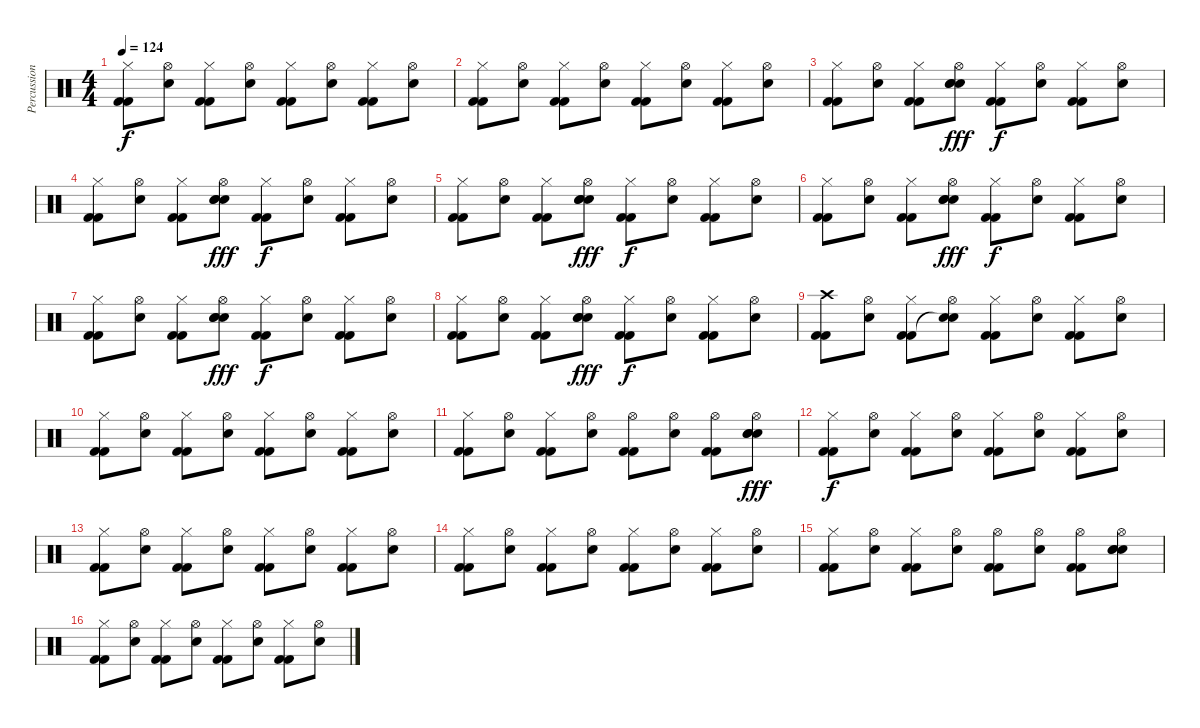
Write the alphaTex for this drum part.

\track ("Percussions" "Percussion") {instrument percussion}
\staff {score}
\articulation defaults
\ts (4 4)
\tempo 124
\clef neutral
\ks c
("Kick (hit) 2" "Kick (hit) 2" "Hi-Hat (closed)").8{dy f} ("Hand Clap (hit)" "Hi-Hat (open)").8 ("Kick (hit) 2" "Kick (hit) 2" "Hi-Hat (closed)").8 ("Hand Clap (hit)" "Hi-Hat (open)").8 ("Kick (hit) 2" "Kick (hit) 2" "Hi-Hat (closed)").8 ("Hand Clap (hit)" "Hi-Hat (open)").8 ("Kick (hit) 2" "Kick (hit) 2" "Hi-Hat (closed)").8 ("Hand Clap (hit)" "Hi-Hat (open)").8 |
("Kick (hit) 2" "Kick (hit) 2" "Hi-Hat (closed)").8 ("Hand Clap (hit)" "Hi-Hat (open)").8 ("Kick (hit) 2" "Kick (hit) 2" "Hi-Hat (closed)").8 ("Hand Clap (hit)" "Hi-Hat (open)").8 ("Kick (hit) 2" "Kick (hit) 2" "Hi-Hat (closed)").8 ("Hand Clap (hit)" "Hi-Hat (open)").8 ("Kick (hit) 2" "Kick (hit) 2" "Hi-Hat (closed)").8 ("Hand Clap (hit)" "Hi-Hat (open)").8 |
("Kick (hit) 2" "Kick (hit) 2" "Hi-Hat (closed)").8 ("Hand Clap (hit)" "Hi-Hat (open)").8 ("Kick (hit) 2" "Kick (hit) 2" "Hi-Hat (closed)").8 ("Hand Clap (hit)" "Electric Snare (hit)" "Electric Snare (hit)" "Hi-Hat (open)").8{dy fff} ("Kick (hit) 2" "Kick (hit) 2" "Hi-Hat (closed)").8{dy f} ("Hand Clap (hit)" "Hi-Hat (open)").8 ("Kick (hit) 2" "Kick (hit) 2" "Hi-Hat (closed)").8 ("Hand Clap (hit)" "Hi-Hat (open)").8 |
("Kick (hit) 2" "Kick (hit) 2" "Hi-Hat (closed)").8 ("Hand Clap (hit)" "Hi-Hat (open)").8 ("Kick (hit) 2" "Kick (hit) 2" "Hi-Hat (closed)").8 ("Hand Clap (hit)" "Electric Snare (hit)" "Electric Snare (hit)" "Hi-Hat (open)").8{dy fff} ("Kick (hit) 2" "Kick (hit) 2" "Hi-Hat (closed)").8{dy f} ("Hand Clap (hit)" "Hi-Hat (open)").8 ("Kick (hit) 2" "Kick (hit) 2" "Hi-Hat (closed)").8 ("Hand Clap (hit)" "Hi-Hat (open)").8 |
("Kick (hit) 2" "Kick (hit) 2" "Hi-Hat (closed)").8 ("Hand Clap (hit)" "Hi-Hat (open)").8 ("Kick (hit) 2" "Kick (hit) 2" "Hi-Hat (closed)").8 ("Hand Clap (hit)" "Electric Snare (hit)" "Electric Snare (hit)" "Hi-Hat (open)").8{dy fff} ("Kick (hit) 2" "Kick (hit) 2" "Hi-Hat (closed)").8{dy f} ("Hand Clap (hit)" "Hi-Hat (open)").8 ("Kick (hit) 2" "Kick (hit) 2" "Hi-Hat (closed)").8 ("Hand Clap (hit)" "Hi-Hat (open)").8 |
("Kick (hit) 2" "Kick (hit) 2" "Hi-Hat (closed)").8 ("Hand Clap (hit)" "Hi-Hat (open)").8 ("Kick (hit) 2" "Kick (hit) 2" "Hi-Hat (closed)").8 ("Hand Clap (hit)" "Electric Snare (hit)" "Electric Snare (hit)" "Hi-Hat (open)").8{dy fff} ("Kick (hit) 2" "Kick (hit) 2" "Hi-Hat (closed)").8{dy f} ("Hand Clap (hit)" "Hi-Hat (open)").8 ("Kick (hit) 2" "Kick (hit) 2" "Hi-Hat (closed)").8 ("Hand Clap (hit)" "Hi-Hat (open)").8 |
("Kick (hit) 2" "Kick (hit) 2" "Hi-Hat (closed)").8 ("Hand Clap (hit)" "Hi-Hat (open)").8 ("Kick (hit) 2" "Kick (hit) 2" "Hi-Hat (closed)").8 ("Hand Clap (hit)" "Electric Snare (hit)" "Electric Snare (hit)" "Hi-Hat (open)").8{dy fff} ("Kick (hit) 2" "Kick (hit) 2" "Hi-Hat (closed)").8{dy f} ("Hand Clap (hit)" "Hi-Hat (open)").8 ("Kick (hit) 2" "Kick (hit) 2" "Hi-Hat (closed)").8 ("Hand Clap (hit)" "Hi-Hat (open)").8 |
("Kick (hit) 2" "Kick (hit) 2" "Hi-Hat (closed)").8 ("Hand Clap (hit)" "Hi-Hat (open)").8 ("Kick (hit) 2" "Kick (hit) 2" "Hi-Hat (closed)").8 ("Hand Clap (hit)" "Electric Snare (hit)" "Electric Snare (hit)" "Hi-Hat (open)").8{dy fff} ("Kick (hit) 2" "Kick (hit) 2" "Hi-Hat (closed)").8{dy f} ("Hand Clap (hit)" "Hi-Hat (open)").8 ("Kick (hit) 2" "Kick (hit) 2" "Hi-Hat (closed)").8 ("Hand Clap (hit)" "Hi-Hat (open)").8 |
("Kick (hit) 2" "Kick (hit) 2" "Crash high (hit)").8 ("Hand Clap (hit)" "Hi-Hat (open)").8 ("Kick (hit) 2" "Kick (hit) 2" "Hi-Hat (closed)").8 ("Hand Clap (hit)" "Snare (hit)"{t} "Hi-Hat (open)").8 ("Kick (hit) 2" "Kick (hit) 2" "Hi-Hat (closed)").8 ("Hand Clap (hit)" "Hi-Hat (open)").8 ("Kick (hit) 2" "Kick (hit) 2" "Hi-Hat (closed)").8 ("Hand Clap (hit)" "Hi-Hat (open)").8 |
("Kick (hit) 2" "Kick (hit) 2" "Hi-Hat (closed)").8 ("Hand Clap (hit)" "Hi-Hat (open)").8 ("Kick (hit) 2" "Kick (hit) 2" "Hi-Hat (closed)").8 ("Hand Clap (hit)" "Hi-Hat (open)").8 ("Kick (hit) 2" "Kick (hit) 2" "Hi-Hat (closed)").8 ("Hand Clap (hit)" "Hi-Hat (open)").8 ("Kick (hit) 2" "Kick (hit) 2" "Hi-Hat (closed)").8 ("Hand Clap (hit)" "Hi-Hat (open)").8 |
("Kick (hit) 2" "Kick (hit) 2" "Hi-Hat (closed)").8 ("Hand Clap (hit)" "Hi-Hat (open)").8 ("Kick (hit) 2" "Kick (hit) 2" "Hi-Hat (closed)").8 ("Hand Clap (hit)" "Hi-Hat (open)").8 ("Kick (hit) 2" "Kick (hit) 2" "Hi-Hat (open)").8 ("Hand Clap (hit)" "Hi-Hat (open)").8 ("Kick (hit) 2" "Kick (hit) 2" "Hi-Hat (open)").8 ("Hand Clap (hit)" "Electric Snare (hit)" "Electric Snare (hit)" "Hi-Hat (open)").8{dy fff} |
("Kick (hit) 2" "Kick (hit) 2" "Hi-Hat (closed)").8{dy f} ("Hand Clap (hit)" "Hi-Hat (open)").8 ("Kick (hit) 2" "Kick (hit) 2" "Hi-Hat (closed)").8 ("Hand Clap (hit)" "Hi-Hat (open)").8 ("Kick (hit) 2" "Kick (hit) 2" "Hi-Hat (closed)").8 ("Hand Clap (hit)" "Hi-Hat (open)").8 ("Kick (hit) 2" "Kick (hit) 2" "Hi-Hat (closed)").8 ("Hand Clap (hit)" "Hi-Hat (open)").8 |
("Kick (hit) 2" "Kick (hit) 2" "Hi-Hat (closed)").8 ("Hand Clap (hit)" "Hi-Hat (open)").8 ("Kick (hit) 2" "Kick (hit) 2" "Hi-Hat (closed)").8 ("Hand Clap (hit)" "Hi-Hat (open)").8 ("Kick (hit) 2" "Kick (hit) 2" "Hi-Hat (closed)").8 ("Hand Clap (hit)" "Hi-Hat (open)").8 ("Kick (hit) 2" "Kick (hit) 2" "Hi-Hat (closed)").8 ("Hand Clap (hit)" "Hi-Hat (open)").8 |
("Kick (hit) 2" "Kick (hit) 2" "Hi-Hat (closed)").8 ("Hand Clap (hit)" "Hi-Hat (open)").8 ("Kick (hit) 2" "Kick (hit) 2" "Hi-Hat (closed)").8 ("Hand Clap (hit)" "Hi-Hat (open)").8 ("Kick (hit) 2" "Kick (hit) 2" "Hi-Hat (closed)").8 ("Hand Clap (hit)" "Hi-Hat (open)").8 ("Kick (hit) 2" "Kick (hit) 2" "Hi-Hat (closed)").8 ("Hand Clap (hit)" "Hi-Hat (open)").8 |
("Kick (hit) 2" "Kick (hit) 2" "Hi-Hat (closed)").8 ("Hand Clap (hit)" "Hi-Hat (open)").8 ("Kick (hit) 2" "Kick (hit) 2" "Hi-Hat (closed)").8 ("Hand Clap (hit)" "Hi-Hat (open)").8 ("Kick (hit) 2" "Kick (hit) 2" "Hi-Hat (open)").8 ("Hand Clap (hit)" "Hi-Hat (open)").8 ("Kick (hit) 2" "Kick (hit) 2" "Hi-Hat (open)").8 ("Hand Clap (hit)" "Electric Snare (hit)" "Electric Snare (hit)" "Hi-Hat (open)").8 |
("Kick (hit) 2" "Kick (hit) 2" "Hi-Hat (closed)").8 ("Hand Clap (hit)" "Hi-Hat (open)").8 ("Kick (hit) 2" "Kick (hit) 2" "Hi-Hat (closed)").8 ("Hand Clap (hit)" "Hi-Hat (open)").8 ("Kick (hit) 2" "Kick (hit) 2" "Hi-Hat (closed)").8 ("Hand Clap (hit)" "Hi-Hat (open)").8 ("Kick (hit) 2" "Kick (hit) 2" "Hi-Hat (closed)").8 ("Hand Clap (hit)" "Hi-Hat (open)").8
